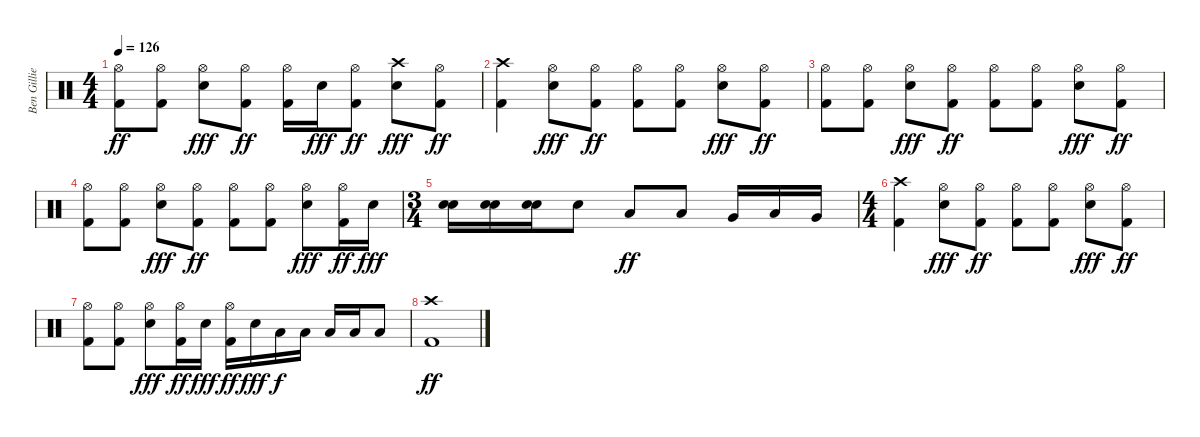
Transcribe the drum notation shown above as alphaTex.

\track ("Ben Gillies" "Ben Gillie") {instrument percussion}
\staff {score}
\articulation defaults
\ts (4 4)
\tempo 126
\clef neutral
\ks c
("Hi-Hat (open)" "Kick (hit) 2").8{dy ff} ("Hi-Hat (open)" "Kick (hit) 2").8 ("Hi-Hat (open)" "Electric Snare (hit)").8{dy fff} ("Hi-Hat (open)" "Kick (hit) 2").8{dy ff} ("Hi-Hat (open)" "Kick (hit) 2").16 "Electric Snare (hit)".16{dy fff} ("Hi-Hat (open)" "Kick (hit) 2").8{dy ff} ("Crash high (hit)" "Electric Snare (hit)").8{dy fff} ("Hi-Hat (open)" "Kick (hit) 2").8{dy ff} |
("Crash high (hit)" "Kick (hit) 2").4 ("Hi-Hat (open)" "Electric Snare (hit)").8{dy fff} ("Hi-Hat (open)" "Kick (hit) 2").8{dy ff} ("Hi-Hat (open)" "Kick (hit) 2").8 ("Hi-Hat (open)" "Kick (hit) 2").8 ("Hi-Hat (open)" "Electric Snare (hit)").8{dy fff} ("Hi-Hat (open)" "Kick (hit) 2").8{dy ff} |
("Hi-Hat (open)" "Kick (hit) 2").8 ("Hi-Hat (open)" "Kick (hit) 2").8 ("Hi-Hat (open)" "Electric Snare (hit)").8{dy fff} ("Hi-Hat (open)" "Kick (hit) 2").8{dy ff} ("Hi-Hat (open)" "Kick (hit) 2").8 ("Hi-Hat (open)" "Kick (hit) 2").8 ("Hi-Hat (open)" "Electric Snare (hit)").8{dy fff} ("Hi-Hat (open)" "Kick (hit) 2").8{dy ff} |
("Hi-Hat (open)" "Kick (hit) 2").8 ("Hi-Hat (open)" "Kick (hit) 2").8 ("Hi-Hat (open)" "Electric Snare (hit)").8{dy fff} ("Hi-Hat (open)" "Kick (hit) 2").8{dy ff} ("Hi-Hat (open)" "Kick (hit) 2").8 ("Hi-Hat (open)" "Kick (hit) 2").8 ("Hi-Hat (open)" "Electric Snare (hit)").8{dy fff} ("Hi-Hat (open)" "Kick (hit) 2").16{dy ff} "Electric Snare (hit)".16{dy fff} |
\ts (3 4)
("Electric Snare (hit)" "Electric Snare (hit)").16 ("Electric Snare (hit)" "Electric Snare (hit)").16 ("Electric Snare (hit)" "Electric Snare (hit)").16 "Electric Snare (hit)".8 "Low Tom (hit)".8{dy ff} "Low Floor Tom (hit)".8 "Very Low Tom (hit)".16 "Low Floor Tom (hit)".16 "Very Low Tom (hit)".16 |
\ts (4 4)
("Crash high (hit)" "Kick (hit) 2").4 ("Hi-Hat (open)" "Electric Snare (hit)").8{dy fff} ("Hi-Hat (open)" "Kick (hit) 2").8{dy ff} ("Hi-Hat (open)" "Kick (hit) 2").8 ("Hi-Hat (open)" "Kick (hit) 2").8 ("Hi-Hat (open)" "Electric Snare (hit)").8{dy fff} ("Hi-Hat (open)" "Kick (hit) 2").8{dy ff} |
("Hi-Hat (open)" "Kick (hit) 2").8 ("Hi-Hat (open)" "Kick (hit) 2").8 ("Hi-Hat (open)" "Electric Snare (hit)").8{dy fff} ("Hi-Hat (open)" "Kick (hit) 2").16{dy ff} "Electric Snare (hit)".16{dy fff} ("Hi-Hat (open)" "Kick (hit) 2").16{dy ff} "Electric Snare (hit)".16{dy fff} "Low Tom (hit)".16{dy f} "Low Tom (hit)".16 "Low Tom (hit)".16 "Low Tom (hit)".16 "Low Tom (hit)".8 |
("Crash high (hit)" "Kick (hit) 2").1{dy ff}
